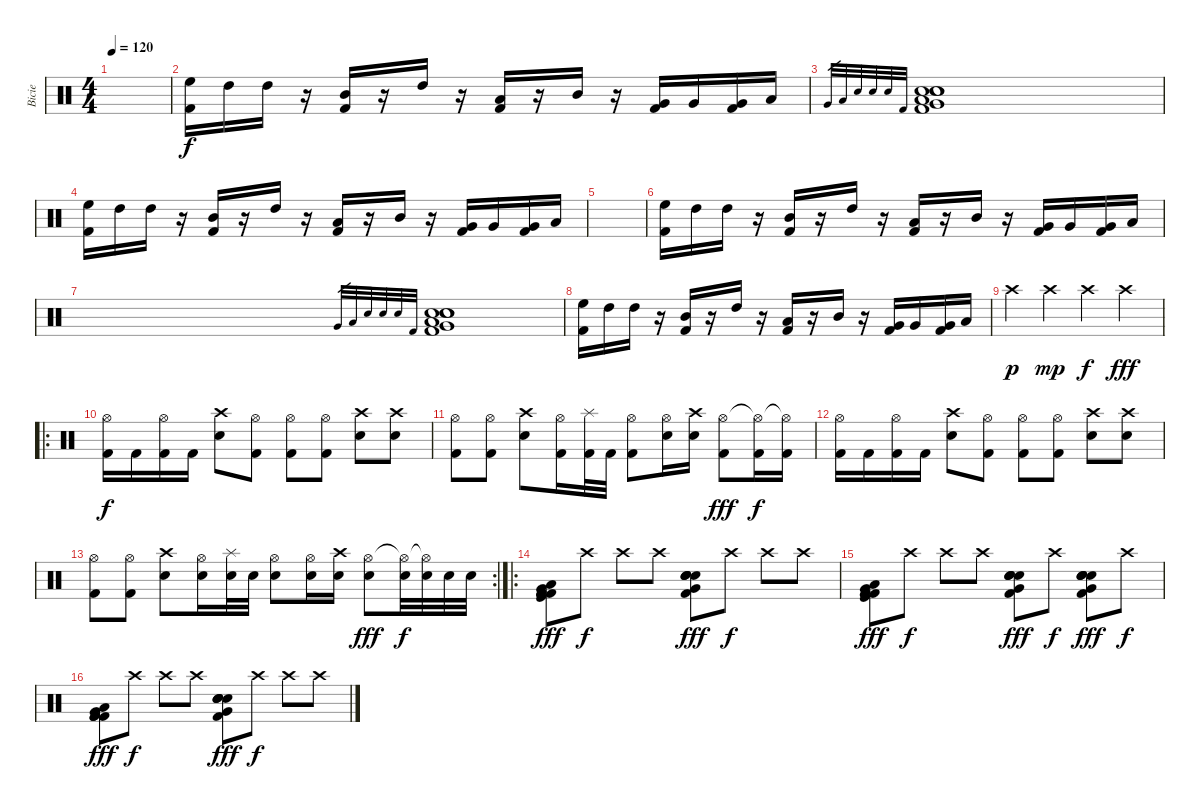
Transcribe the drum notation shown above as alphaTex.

\track ("Bicie" "Bicie") {instrument percussion}
\staff {score}
\articulation defaults
\ts (4 4)
\tempo 120
\clef neutral
\ks c
|
("High Floor Tom (hit)" "Kick (hit) 2").16 "High Tom (hit)".16 "High Tom (hit)".16 r.16 ("Mid Tom (hit)" "Kick (hit) 2").16 r.16 "High Tom (hit)".16 r.16 ("Low Tom (hit)" "Kick (hit) 2").16 r.16 "Mid Tom (hit)".16 r.16 ("Very Low Tom (hit)" "Kick (hit) 2").16 "Very Low Tom (hit)".16 ("Very Low Tom (hit)" "Kick (hit) 2").16 "Low Floor Tom (hit)".16 |
"Very Low Tom (hit)".32{gr} "Low Floor Tom (hit)".32{gr} "Snare (hit) 2".32{gr} "Electric Snare (hit)".32{gr} "Electric Snare (hit)".32{gr} "Kick (hit) 2".32{gr} ("Very Low Tom (hit)" "Low Floor Tom (hit)" "Snare (hit) 2" "Electric Snare (hit)" "Electric Snare (hit)" "Kick (hit) 2").1 |
("High Floor Tom (hit)" "Kick (hit) 2").16 "High Tom (hit)".16 "High Tom (hit)".16 r.16 ("Mid Tom (hit)" "Kick (hit) 2").16 r.16 "High Tom (hit)".16 r.16 ("Low Tom (hit)" "Kick (hit) 2").16 r.16 "Mid Tom (hit)".16 r.16 ("Very Low Tom (hit)" "Kick (hit) 2").16 "Very Low Tom (hit)".16 ("Very Low Tom (hit)" "Kick (hit) 2").16 "Low Floor Tom (hit)".16 |
|
("High Floor Tom (hit)" "Kick (hit) 2").16 "High Tom (hit)".16 "High Tom (hit)".16 r.16 ("Mid Tom (hit)" "Kick (hit) 2").16 r.16 "High Tom (hit)".16 r.16 ("Low Tom (hit)" "Kick (hit) 2").16 r.16 "Mid Tom (hit)".16 r.16 ("Very Low Tom (hit)" "Kick (hit) 2").16 "Very Low Tom (hit)".16 ("Very Low Tom (hit)" "Kick (hit) 2").16 "Low Floor Tom (hit)".16 |
"Very Low Tom (hit)".32{gr} "Low Floor Tom (hit)".32{gr} "Snare (hit) 2".32{gr} "Electric Snare (hit)".32{gr} "Electric Snare (hit)".32{gr} "Kick (hit) 2".32{gr} ("Very Low Tom (hit)" "Low Floor Tom (hit)" "Snare (hit) 2" "Electric Snare (hit)" "Electric Snare (hit)" "Kick (hit) 2").1 |
("High Floor Tom (hit)" "Kick (hit) 2").16 "High Tom (hit)".16 "High Tom (hit)".16 r.16 ("Mid Tom (hit)" "Kick (hit) 2").16 r.16 "High Tom (hit)".16 r.16 ("Low Tom (hit)" "Kick (hit) 2").16 r.16 "Mid Tom (hit)".16 r.16 ("Very Low Tom (hit)" "Kick (hit) 2").16 "Very Low Tom (hit)".16 ("Very Low Tom (hit)" "Kick (hit) 2").16 "Low Floor Tom (hit)".16 |
"Crash high (hit)".4{dy p} "Crash high (hit)".4{dy mp} "Crash high (hit)".4{dy f} "Crash high (hit)".4{dy fff} |
\ro
("Hi-Hat (open)" "Kick (hit) 2").16{dy f} "Kick (hit) 2".16 ("Hi-Hat (open)" "Kick (hit) 2").16 "Kick (hit) 2".16 ("Crash high (hit)" "Snare (hit) 2").8 ("Hi-Hat (open)" "Kick (hit) 2").8 ("Hi-Hat (open)" "Kick (hit) 2").8 ("Hi-Hat (open)" "Kick (hit) 2").8 ("Crash high (hit)" "Snare (hit) 2").8 ("Crash high (hit)" "Snare (hit) 2").8 |
("Hi-Hat (open)" "Kick (hit) 2").8 ("Hi-Hat (open)" "Kick (hit) 2").8 ("Crash high (hit)" "Snare (hit) 2").8 ("Hi-Hat (open)" "Kick (hit) 2").16 ("Splash (hit)" "Kick (hit) 2").32 "Kick (hit) 2".32 ("Hi-Hat (open)" "Kick (hit) 2").8 ("Hi-Hat (open)" "Snare (hit) 2").16 ("Crash high (hit)" "Snare (hit) 2").16 ("Hi-Hat (open)" "Kick (hit) 2").8{dy fff} ("Hi-Hat (open)"{t} "Kick (hit) 2").16{dy f} ("Hi-Hat (open)"{t} "Kick (hit) 2").16 |
("Hi-Hat (open)" "Kick (hit) 2").16 "Kick (hit) 2".16 ("Hi-Hat (open)" "Kick (hit) 2").16 "Kick (hit) 2".16 ("Crash high (hit)" "Snare (hit) 2").8 ("Hi-Hat (open)" "Kick (hit) 2").8 ("Hi-Hat (open)" "Kick (hit) 2").8 ("Hi-Hat (open)" "Kick (hit) 2").8 ("Crash high (hit)" "Snare (hit) 2").8 ("Crash high (hit)" "Snare (hit) 2").8 |
\rc 2
("Hi-Hat (open)" "Kick (hit) 2").8 ("Hi-Hat (open)" "Kick (hit) 2").8 ("Crash high (hit)" "Snare (hit) 2").8 ("Hi-Hat (open)" "Snare (hit) 2").16 ("Splash (hit)" "Snare (hit) 2").32 "Snare (hit) 2".32 ("Hi-Hat (open)" "Snare (hit) 2").8 ("Hi-Hat (open)" "Snare (hit) 2").16 ("Crash high (hit)" "Snare (hit) 2").16 ("Hi-Hat (open)" "Snare (hit) 2").8{dy fff} ("Hi-Hat (open)"{t} "Snare (hit) 2").32{dy f} ("Hi-Hat (open)"{t} "Snare (hit) 2").32 "Snare (hit) 2".32 "Snare (hit) 2".32 |
\ro
("Very Low Tom (hit)" "Kick (hit)" "Kick (hit) 2" "Kick (hit) 2" "Kick (hit) 2" "Low Floor Tom (hit)").8{dy fff} "Crash high (hit)".8{dy f} "Crash high (hit)".8 "Crash high (hit)".8 ("Very Low Tom (hit)" "Electric Snare (hit)" "Electric Snare (hit)" "Electric Snare (hit)" "Electric Snare (hit)" "Kick (hit) 2").8{dy fff} "Crash high (hit)".8{dy f} "Crash high (hit)".8 "Crash high (hit)".8 |
("Very Low Tom (hit)" "Kick (hit)" "Kick (hit) 2" "Kick (hit) 2" "Kick (hit) 2" "Low Floor Tom (hit)").8{dy fff} "Crash high (hit)".8{dy f} "Crash high (hit)".8 "Crash high (hit)".8 ("Very Low Tom (hit)" "Electric Snare (hit)" "Electric Snare (hit)" "Electric Snare (hit)" "Electric Snare (hit)" "Kick (hit) 2").8{dy fff} "Crash high (hit)".8{dy f} ("Very Low Tom (hit)" "Electric Snare (hit)" "Electric Snare (hit)" "Electric Snare (hit)" "Electric Snare (hit)" "Kick (hit) 2").8{dy fff} "Crash high (hit)".8{dy f} |
("Very Low Tom (hit)" "Kick (hit) 2" "Kick (hit) 2" "Kick (hit) 2" "Kick (hit) 2" "Low Floor Tom (hit)").8{dy fff} "Crash high (hit)".8{dy f} "Crash high (hit)".8 "Crash high (hit)".8 ("Very Low Tom (hit)" "Electric Snare (hit)" "Electric Snare (hit)" "Electric Snare (hit)" "Electric Snare (hit)" "Kick (hit) 2").8{dy fff} "Crash high (hit)".8{dy f} "Crash high (hit)".8 "Crash high (hit)".8
